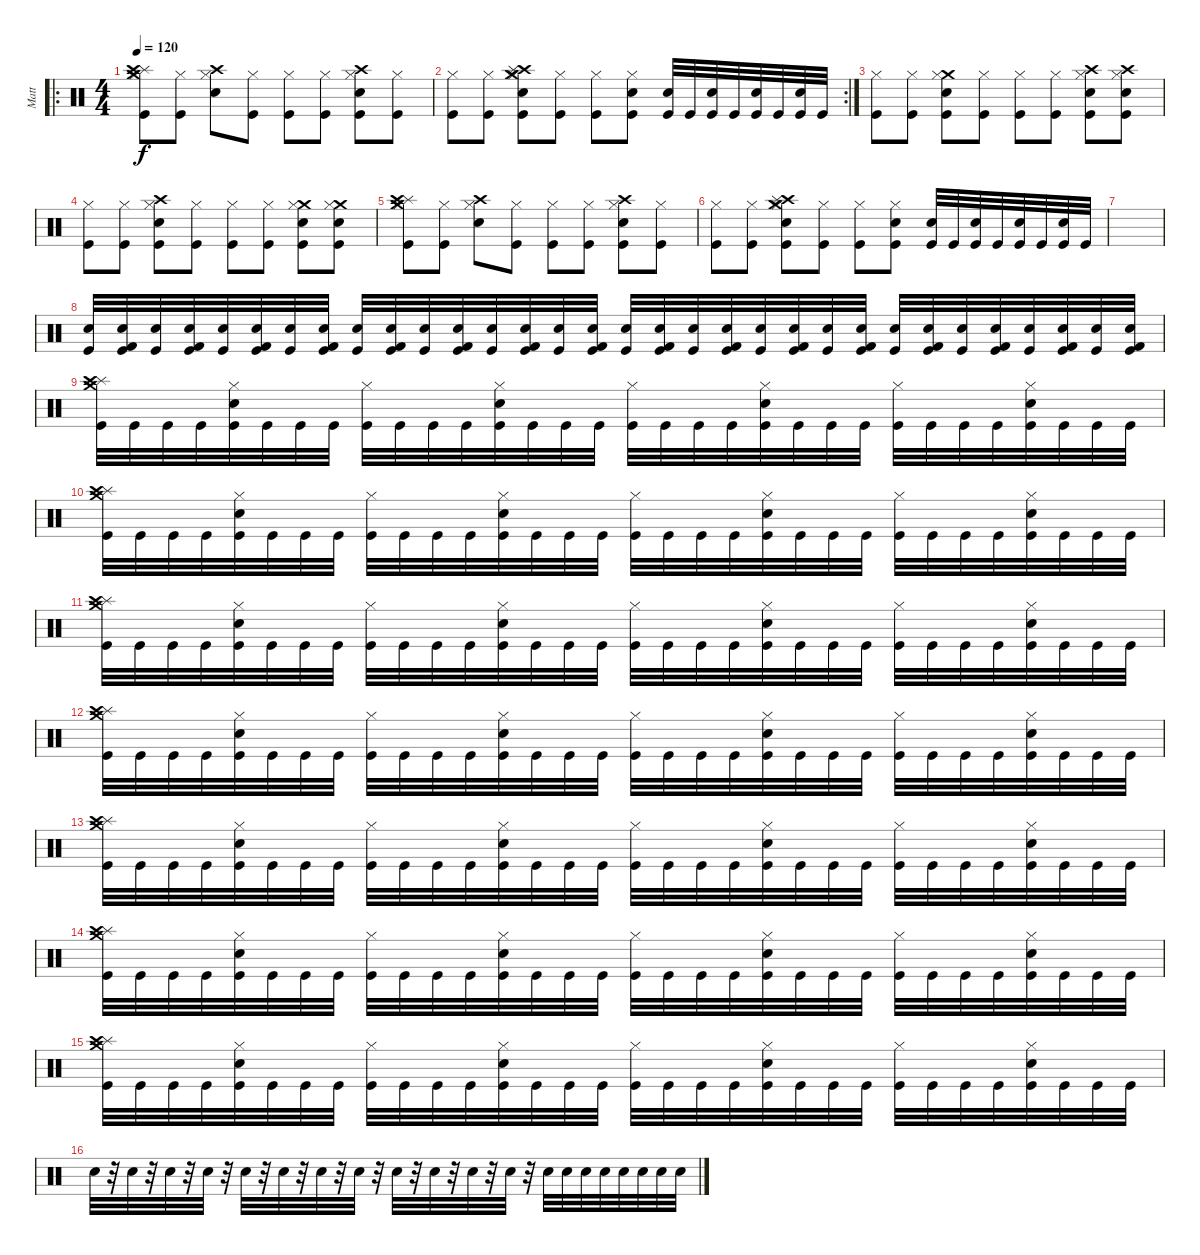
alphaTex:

\track ("Matt" "Matt") {instrument percussion}
\staff {score}
\articulation defaults
\ro
\ts (4 4)
\tempo 120
\clef neutral
\ks c
("Crash medium (hit)" "Splash (hit)" "Crash high (hit)" "Kick (hit)" "Hi-Hat (closed)").8{dy f} ("Hi-Hat (closed)" "Kick (hit)").8 ("Crash high (hit)" "Hi-Hat (closed)" "Electric Snare (hit)").8 ("Hi-Hat (closed)" "Kick (hit)").8 ("Hi-Hat (closed)" "Kick (hit)").8 ("Hi-Hat (closed)" "Kick (hit)").8 ("Crash high (hit)" "Electric Snare (hit)" "Hi-Hat (closed)" "Kick (hit)").8 ("Hi-Hat (closed)" "Kick (hit)").8 |
\rc 2
("Hi-Hat (closed)" "Kick (hit)").8 ("Hi-Hat (closed)" "Kick (hit)").8 ("Crash high (hit)" "Crash medium (hit)" "Hi-Hat (closed)" "Kick (hit)" "Electric Snare (hit)" "Splash (hit)").8 ("Hi-Hat (closed)" "Kick (hit)").8 ("Kick (hit)" "Hi-Hat (closed)").8 ("Electric Snare (hit)" "Hi-Hat (closed)" "Kick (hit)").8 ("Electric Snare (hit)" "Kick (hit)").32 "Kick (hit)".32 ("Electric Snare (hit)" "Kick (hit)").32 "Kick (hit)".32 ("Electric Snare (hit)" "Kick (hit)").32 "Kick (hit)".32 ("Electric Snare (hit)" "Kick (hit)").32 "Kick (hit)".32 |
("Hi-Hat (closed)" "Kick (hit)").8 ("Hi-Hat (closed)" "Kick (hit)").8 ("Crash medium (hit)" "Electric Snare (hit)" "Hi-Hat (closed)" "Kick (hit)").8 ("Hi-Hat (closed)" "Kick (hit)").8 ("Hi-Hat (closed)" "Kick (hit)").8 ("Hi-Hat (closed)" "Kick (hit)").8 ("Crash high (hit)" "Electric Snare (hit)" "Hi-Hat (closed)" "Kick (hit)").8 ("Crash high (hit)" "Electric Snare (hit)" "Hi-Hat (closed)" "Kick (hit)").8 |
("Hi-Hat (closed)" "Kick (hit)").8 ("Hi-Hat (closed)" "Kick (hit)").8 ("Crash high (hit)" "Electric Snare (hit)" "Hi-Hat (closed)" "Kick (hit)").8 ("Hi-Hat (closed)" "Kick (hit)").8 ("Hi-Hat (closed)" "Kick (hit)").8 ("Hi-Hat (closed)" "Kick (hit)").8 ("Crash medium (hit)" "Electric Snare (hit)" "Hi-Hat (closed)" "Kick (hit)").8 ("Crash medium (hit)" "Electric Snare (hit)" "Hi-Hat (closed)" "Kick (hit)").8 |
("Crash medium (hit)" "Splash (hit)" "Crash high (hit)" "Kick (hit)" "Hi-Hat (closed)").8 ("Hi-Hat (closed)" "Kick (hit)").8 ("Crash high (hit)" "Hi-Hat (closed)" "Electric Snare (hit)").8 ("Hi-Hat (closed)" "Kick (hit)").8 ("Hi-Hat (closed)" "Kick (hit)").8 ("Hi-Hat (closed)" "Kick (hit)").8 ("Crash high (hit)" "Electric Snare (hit)" "Hi-Hat (closed)" "Kick (hit)").8 ("Hi-Hat (closed)" "Kick (hit)").8 |
("Hi-Hat (closed)" "Kick (hit)").8 ("Hi-Hat (closed)" "Kick (hit)").8 ("Crash high (hit)" "Crash medium (hit)" "Hi-Hat (closed)" "Kick (hit)" "Electric Snare (hit)" "Splash (hit)").8 ("Hi-Hat (closed)" "Kick (hit)").8 ("Kick (hit)" "Hi-Hat (closed)").8 ("Electric Snare (hit)" "Hi-Hat (closed)" "Kick (hit)").8 ("Electric Snare (hit)" "Kick (hit)").32 "Kick (hit)".32 ("Electric Snare (hit)" "Kick (hit)").32 "Kick (hit)".32 ("Electric Snare (hit)" "Kick (hit)").32 "Kick (hit)".32 ("Electric Snare (hit)" "Kick (hit)").32 "Kick (hit)".32 |
|
("Electric Snare (hit)" "Kick (hit)").32 ("Electric Snare (hit)" "Kick (hit)" "Kick (hit) 2").32 ("Electric Snare (hit)" "Kick (hit)").32 ("Electric Snare (hit)" "Kick (hit)" "Kick (hit) 2").32 ("Electric Snare (hit)" "Kick (hit)").32 ("Electric Snare (hit)" "Kick (hit)" "Kick (hit) 2").32 ("Electric Snare (hit)" "Kick (hit)").32 ("Electric Snare (hit)" "Kick (hit)" "Kick (hit) 2").32 ("Electric Snare (hit)" "Kick (hit)").32 ("Electric Snare (hit)" "Kick (hit)" "Kick (hit) 2").32 ("Electric Snare (hit)" "Kick (hit)").32 ("Electric Snare (hit)" "Kick (hit)" "Kick (hit) 2").32 ("Electric Snare (hit)" "Kick (hit)").32 ("Electric Snare (hit)" "Kick (hit)" "Kick (hit) 2").32 ("Electric Snare (hit)" "Kick (hit)").32 ("Electric Snare (hit)" "Kick (hit)" "Kick (hit) 2").32 ("Electric Snare (hit)" "Kick (hit)").32 ("Electric Snare (hit)" "Kick (hit)" "Kick (hit) 2").32 ("Electric Snare (hit)" "Kick (hit)").32 ("Electric Snare (hit)" "Kick (hit)" "Kick (hit) 2").32 ("Electric Snare (hit)" "Kick (hit)").32 ("Electric Snare (hit)" "Kick (hit)" "Kick (hit) 2").32 ("Electric Snare (hit)" "Kick (hit)").32 ("Electric Snare (hit)" "Kick (hit)" "Kick (hit) 2").32 ("Electric Snare (hit)" "Kick (hit)").32 ("Electric Snare (hit)" "Kick (hit)" "Kick (hit) 2").32 ("Electric Snare (hit)" "Kick (hit)").32 ("Electric Snare (hit)" "Kick (hit)" "Kick (hit) 2").32 ("Electric Snare (hit)" "Kick (hit)").32 ("Electric Snare (hit)" "Kick (hit)" "Kick (hit) 2").32 ("Electric Snare (hit)" "Kick (hit)").32 ("Electric Snare (hit)" "Kick (hit)" "Kick (hit) 2").32 |
("Splash (hit)" "Crash high (hit)" "Crash medium (hit)" "Kick (hit)").32 "Kick (hit)".32 "Kick (hit)".32 "Kick (hit)".32 ("Electric Snare (hit)" "Hi-Hat (closed)" "Kick (hit)").32 "Kick (hit)".32 "Kick (hit)".32 "Kick (hit)".32 ("Hi-Hat (closed)" "Kick (hit)").32 "Kick (hit)".32 "Kick (hit)".32 "Kick (hit)".32 ("Electric Snare (hit)" "Hi-Hat (closed)" "Kick (hit)").32 "Kick (hit)".32 "Kick (hit)".32 "Kick (hit)".32 ("Hi-Hat (closed)" "Kick (hit)").32 "Kick (hit)".32 "Kick (hit)".32 "Kick (hit)".32 ("Electric Snare (hit)" "Hi-Hat (closed)" "Kick (hit)").32 "Kick (hit)".32 "Kick (hit)".32 "Kick (hit)".32 ("Hi-Hat (closed)" "Kick (hit)").32 "Kick (hit)".32 "Kick (hit)".32 "Kick (hit)".32 ("Electric Snare (hit)" "Hi-Hat (closed)" "Kick (hit)").32 "Kick (hit)".32 "Kick (hit)".32 "Kick (hit)".32 |
("Splash (hit)" "Crash high (hit)" "Crash medium (hit)" "Kick (hit)").32 "Kick (hit)".32 "Kick (hit)".32 "Kick (hit)".32 ("Electric Snare (hit)" "Hi-Hat (closed)" "Kick (hit)").32 "Kick (hit)".32 "Kick (hit)".32 "Kick (hit)".32 ("Hi-Hat (closed)" "Kick (hit)").32 "Kick (hit)".32 "Kick (hit)".32 "Kick (hit)".32 ("Electric Snare (hit)" "Hi-Hat (closed)" "Kick (hit)").32 "Kick (hit)".32 "Kick (hit)".32 "Kick (hit)".32 ("Hi-Hat (closed)" "Kick (hit)").32 "Kick (hit)".32 "Kick (hit)".32 "Kick (hit)".32 ("Electric Snare (hit)" "Hi-Hat (closed)" "Kick (hit)").32 "Kick (hit)".32 "Kick (hit)".32 "Kick (hit)".32 ("Hi-Hat (closed)" "Kick (hit)").32 "Kick (hit)".32 "Kick (hit)".32 "Kick (hit)".32 ("Electric Snare (hit)" "Hi-Hat (closed)" "Kick (hit)").32 "Kick (hit)".32 "Kick (hit)".32 "Kick (hit)".32 |
("Splash (hit)" "Crash high (hit)" "Crash medium (hit)" "Kick (hit)").32 "Kick (hit)".32 "Kick (hit)".32 "Kick (hit)".32 ("Electric Snare (hit)" "Hi-Hat (closed)" "Kick (hit)").32 "Kick (hit)".32 "Kick (hit)".32 "Kick (hit)".32 ("Hi-Hat (closed)" "Kick (hit)").32 "Kick (hit)".32 "Kick (hit)".32 "Kick (hit)".32 ("Electric Snare (hit)" "Hi-Hat (closed)" "Kick (hit)").32 "Kick (hit)".32 "Kick (hit)".32 "Kick (hit)".32 ("Hi-Hat (closed)" "Kick (hit)").32 "Kick (hit)".32 "Kick (hit)".32 "Kick (hit)".32 ("Electric Snare (hit)" "Hi-Hat (closed)" "Kick (hit)").32 "Kick (hit)".32 "Kick (hit)".32 "Kick (hit)".32 ("Hi-Hat (closed)" "Kick (hit)").32 "Kick (hit)".32 "Kick (hit)".32 "Kick (hit)".32 ("Electric Snare (hit)" "Hi-Hat (closed)" "Kick (hit)").32 "Kick (hit)".32 "Kick (hit)".32 "Kick (hit)".32 |
("Splash (hit)" "Crash high (hit)" "Crash medium (hit)" "Kick (hit)").32 "Kick (hit)".32 "Kick (hit)".32 "Kick (hit)".32 ("Electric Snare (hit)" "Hi-Hat (closed)" "Kick (hit)").32 "Kick (hit)".32 "Kick (hit)".32 "Kick (hit)".32 ("Hi-Hat (closed)" "Kick (hit)").32 "Kick (hit)".32 "Kick (hit)".32 "Kick (hit)".32 ("Electric Snare (hit)" "Hi-Hat (closed)" "Kick (hit)").32 "Kick (hit)".32 "Kick (hit)".32 "Kick (hit)".32 ("Hi-Hat (closed)" "Kick (hit)").32 "Kick (hit)".32 "Kick (hit)".32 "Kick (hit)".32 ("Electric Snare (hit)" "Hi-Hat (closed)" "Kick (hit)").32 "Kick (hit)".32 "Kick (hit)".32 "Kick (hit)".32 ("Hi-Hat (closed)" "Kick (hit)").32 "Kick (hit)".32 "Kick (hit)".32 "Kick (hit)".32 ("Electric Snare (hit)" "Hi-Hat (closed)" "Kick (hit)").32 "Kick (hit)".32 "Kick (hit)".32 "Kick (hit)".32 |
("Splash (hit)" "Crash high (hit)" "Crash medium (hit)" "Kick (hit)").32 "Kick (hit)".32 "Kick (hit)".32 "Kick (hit)".32 ("Electric Snare (hit)" "Hi-Hat (closed)" "Kick (hit)").32 "Kick (hit)".32 "Kick (hit)".32 "Kick (hit)".32 ("Hi-Hat (closed)" "Kick (hit)").32 "Kick (hit)".32 "Kick (hit)".32 "Kick (hit)".32 ("Electric Snare (hit)" "Hi-Hat (closed)" "Kick (hit)").32 "Kick (hit)".32 "Kick (hit)".32 "Kick (hit)".32 ("Hi-Hat (closed)" "Kick (hit)").32 "Kick (hit)".32 "Kick (hit)".32 "Kick (hit)".32 ("Electric Snare (hit)" "Hi-Hat (closed)" "Kick (hit)").32 "Kick (hit)".32 "Kick (hit)".32 "Kick (hit)".32 ("Hi-Hat (closed)" "Kick (hit)").32 "Kick (hit)".32 "Kick (hit)".32 "Kick (hit)".32 ("Electric Snare (hit)" "Hi-Hat (closed)" "Kick (hit)").32 "Kick (hit)".32 "Kick (hit)".32 "Kick (hit)".32 |
("Splash (hit)" "Crash high (hit)" "Crash medium (hit)" "Kick (hit)").32 "Kick (hit)".32 "Kick (hit)".32 "Kick (hit)".32 ("Electric Snare (hit)" "Hi-Hat (closed)" "Kick (hit)").32 "Kick (hit)".32 "Kick (hit)".32 "Kick (hit)".32 ("Hi-Hat (closed)" "Kick (hit)").32 "Kick (hit)".32 "Kick (hit)".32 "Kick (hit)".32 ("Electric Snare (hit)" "Hi-Hat (closed)" "Kick (hit)").32 "Kick (hit)".32 "Kick (hit)".32 "Kick (hit)".32 ("Hi-Hat (closed)" "Kick (hit)").32 "Kick (hit)".32 "Kick (hit)".32 "Kick (hit)".32 ("Electric Snare (hit)" "Hi-Hat (closed)" "Kick (hit)").32 "Kick (hit)".32 "Kick (hit)".32 "Kick (hit)".32 ("Hi-Hat (closed)" "Kick (hit)").32 "Kick (hit)".32 "Kick (hit)".32 "Kick (hit)".32 ("Electric Snare (hit)" "Hi-Hat (closed)" "Kick (hit)").32 "Kick (hit)".32 "Kick (hit)".32 "Kick (hit)".32 |
("Splash (hit)" "Crash high (hit)" "Crash medium (hit)" "Kick (hit)").32 "Kick (hit)".32 "Kick (hit)".32 "Kick (hit)".32 ("Electric Snare (hit)" "Hi-Hat (closed)" "Kick (hit)").32 "Kick (hit)".32 "Kick (hit)".32 "Kick (hit)".32 ("Hi-Hat (closed)" "Kick (hit)").32 "Kick (hit)".32 "Kick (hit)".32 "Kick (hit)".32 ("Electric Snare (hit)" "Hi-Hat (closed)" "Kick (hit)").32 "Kick (hit)".32 "Kick (hit)".32 "Kick (hit)".32 ("Hi-Hat (closed)" "Kick (hit)").32 "Kick (hit)".32 "Kick (hit)".32 "Kick (hit)".32 ("Electric Snare (hit)" "Hi-Hat (closed)" "Kick (hit)").32 "Kick (hit)".32 "Kick (hit)".32 "Kick (hit)".32 ("Hi-Hat (closed)" "Kick (hit)").32 "Kick (hit)".32 "Kick (hit)".32 "Kick (hit)".32 ("Electric Snare (hit)" "Hi-Hat (closed)" "Kick (hit)").32 "Kick (hit)".32 "Kick (hit)".32 "Kick (hit)".32 |
"Electric Snare (hit)".32 r.32 "Electric Snare (hit)".32 r.32 "Electric Snare (hit)".32 r.32 "Electric Snare (hit)".32 r.32 "Electric Snare (hit)".32 r.32 "Electric Snare (hit)".32 r.32 "Electric Snare (hit)".32 r.32 "Electric Snare (hit)".32 r.32 "Electric Snare (hit)".32 r.32 "Electric Snare (hit)".32 r.32 "Electric Snare (hit)".32 r.32 "Electric Snare (hit)".32 r.32 "Electric Snare (hit)".32 "Electric Snare (hit)".32 "Electric Snare (hit)".32 "Electric Snare (hit)".32 "Electric Snare (hit)".32 "Electric Snare (hit)".32 "Electric Snare (hit)".32 "Electric Snare (hit)".32
